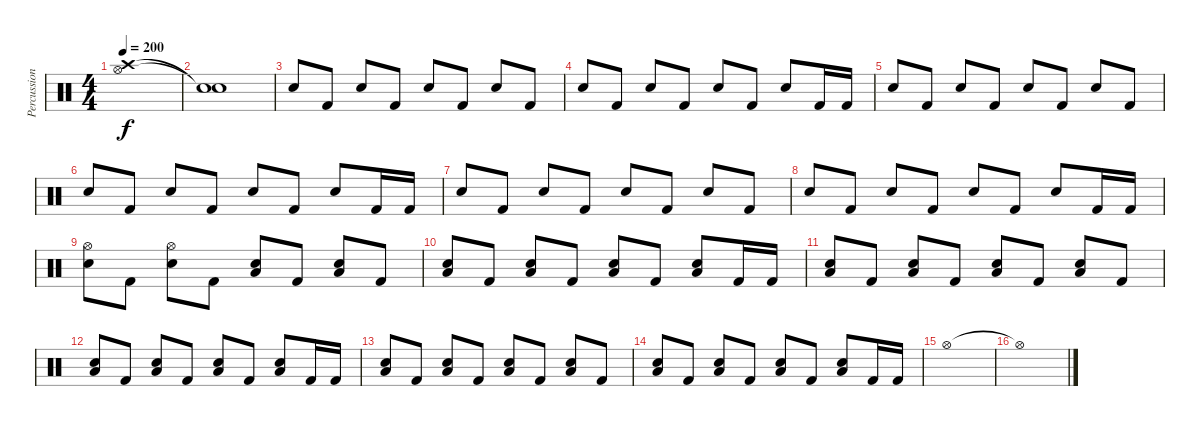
\track ("Percussion" "Percussion") {instrument percussion}
\staff {score}
\articulation defaults
\ts (4 4)
\tempo 200
\clef neutral
\ks c
("Crash high (hit)" "Hi-Hat (open)").1{dy f} |
("Snare (hit)"{t} "Snare (hit)"{t}).1 |
"Electric Snare (hit)".8 "Kick (hit) 2".8 "Electric Snare (hit)".8 "Kick (hit) 2".8 "Electric Snare (hit)".8 "Kick (hit) 2".8 "Electric Snare (hit)".8 "Kick (hit) 2".8 |
"Electric Snare (hit)".8 "Kick (hit) 2".8 "Electric Snare (hit)".8 "Kick (hit) 2".8 "Electric Snare (hit)".8 "Kick (hit) 2".8 "Electric Snare (hit)".8 "Kick (hit) 2".16 "Kick (hit) 2".16 |
"Electric Snare (hit)".8 "Kick (hit) 2".8 "Electric Snare (hit)".8 "Kick (hit) 2".8 "Electric Snare (hit)".8 "Kick (hit) 2".8 "Electric Snare (hit)".8 "Kick (hit) 2".8 |
"Electric Snare (hit)".8 "Kick (hit) 2".8 "Electric Snare (hit)".8 "Kick (hit) 2".8 "Electric Snare (hit)".8 "Kick (hit) 2".8 "Electric Snare (hit)".8 "Kick (hit) 2".16 "Kick (hit) 2".16 |
"Electric Snare (hit)".8 "Kick (hit) 2".8 "Electric Snare (hit)".8 "Kick (hit) 2".8 "Electric Snare (hit)".8 "Kick (hit) 2".8 "Electric Snare (hit)".8 "Kick (hit) 2".8 |
"Electric Snare (hit)".8 "Kick (hit) 2".8 "Electric Snare (hit)".8 "Kick (hit) 2".8 "Electric Snare (hit)".8 "Kick (hit) 2".8 "Electric Snare (hit)".8 "Kick (hit) 2".16 "Kick (hit) 2".16 |
("Hi-Hat (open)" "Electric Snare (hit)").8 "Kick (hit) 2".8 ("Hi-Hat (open)" "Electric Snare (hit)").8 "Kick (hit) 2".8 ("Low Floor Tom (hit)" "Electric Snare (hit)").8 "Kick (hit) 2".8 ("Low Floor Tom (hit)" "Electric Snare (hit)").8 "Kick (hit) 2".8 |
("Low Floor Tom (hit)" "Electric Snare (hit)").8 "Kick (hit) 2".8 ("Low Floor Tom (hit)" "Electric Snare (hit)").8 "Kick (hit) 2".8 ("Low Floor Tom (hit)" "Electric Snare (hit)").8 "Kick (hit) 2".8 ("Low Floor Tom (hit)" "Electric Snare (hit)").8 "Kick (hit) 2".16 "Kick (hit) 2".16 |
("Low Floor Tom (hit)" "Electric Snare (hit)").8 "Kick (hit) 2".8 ("Low Floor Tom (hit)" "Electric Snare (hit)").8 "Kick (hit) 2".8 ("Low Floor Tom (hit)" "Electric Snare (hit)").8 "Kick (hit) 2".8 ("Low Floor Tom (hit)" "Electric Snare (hit)").8 "Kick (hit) 2".8 |
("Low Floor Tom (hit)" "Electric Snare (hit)").8 "Kick (hit) 2".8 ("Low Floor Tom (hit)" "Electric Snare (hit)").8 "Kick (hit) 2".8 ("Low Floor Tom (hit)" "Electric Snare (hit)").8 "Kick (hit) 2".8 ("Low Floor Tom (hit)" "Electric Snare (hit)").8 "Kick (hit) 2".16 "Kick (hit) 2".16 |
("Low Floor Tom (hit)" "Electric Snare (hit)").8 "Kick (hit) 2".8 ("Low Floor Tom (hit)" "Electric Snare (hit)").8 "Kick (hit) 2".8 ("Low Floor Tom (hit)" "Electric Snare (hit)").8 "Kick (hit) 2".8 ("Low Floor Tom (hit)" "Electric Snare (hit)").8 "Kick (hit) 2".8 |
("Low Floor Tom (hit)" "Electric Snare (hit)").8 "Kick (hit) 2".8 ("Low Floor Tom (hit)" "Electric Snare (hit)").8 "Kick (hit) 2".8 ("Low Floor Tom (hit)" "Electric Snare (hit)").8 "Kick (hit) 2".8 ("Low Floor Tom (hit)" "Electric Snare (hit)").8 "Kick (hit) 2".16 "Kick (hit) 2".16 |
"Hi-Hat (open)".1 |
"Hi-Hat (open)"{t}.1
